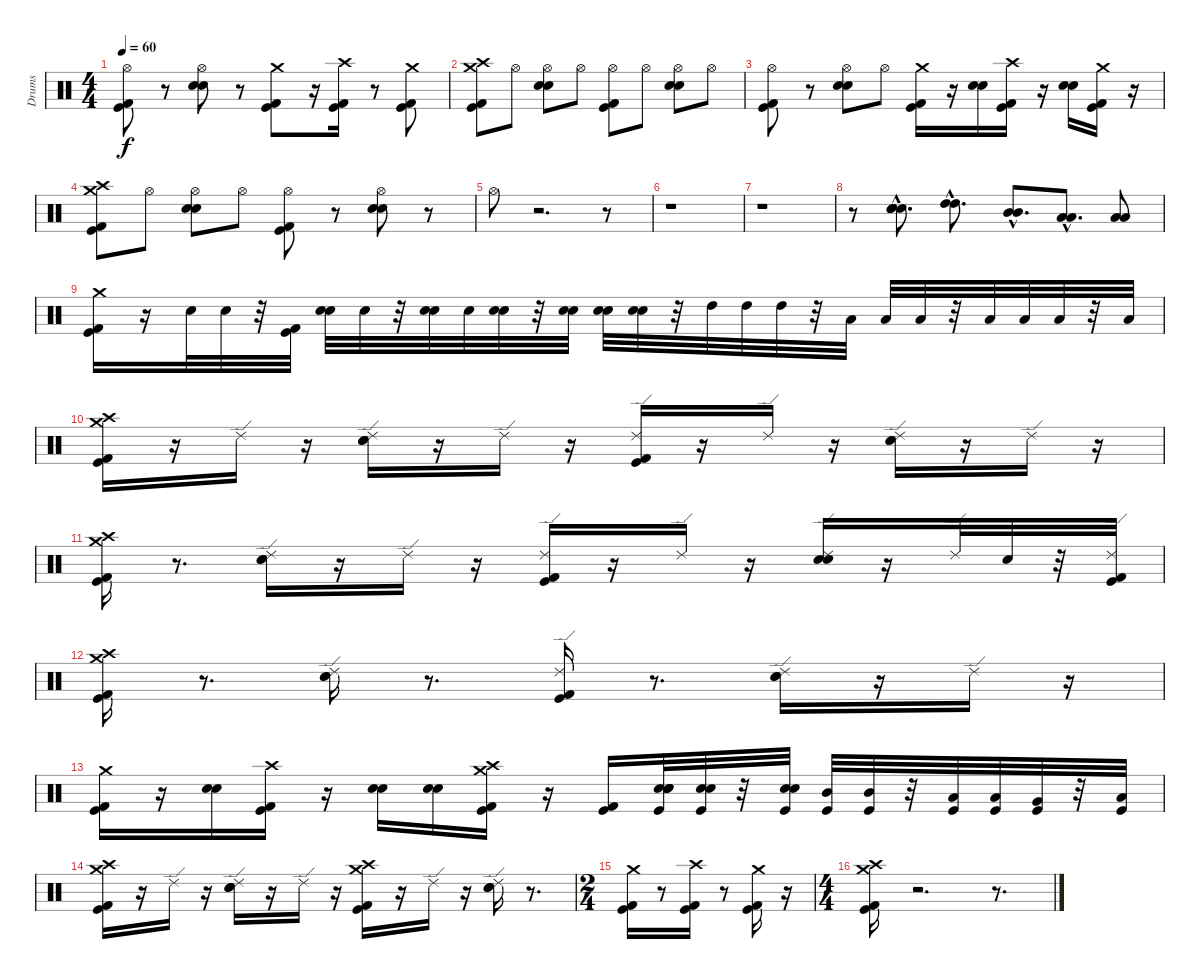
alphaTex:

\track ("Drums" "Drums") {instrument percussion}
\staff {score}
\articulation defaults
\ts (4 4)
\tempo 60
\clef neutral
\ks c
("Hi-Hat (open)" "Kick (hit) 2" "Kick (hit)").8{dy f} r.8 ("Hi-Hat (open)" "Electric Snare (hit)" "Snare (hit) 2").8 r.8 ("Crash medium (hit)" "Kick (hit) 2" "Kick (hit)").8 r.16 ("Kick (hit)" "Kick (hit) 2" "Crash high (hit)").16 r.8 ("Crash medium (hit)" "Kick (hit) 2" "Kick (hit)").8 |
("Crash high (hit)" "Crash medium (hit)" "Kick (hit) 2" "Kick (hit)").8 "Hi-Hat (open)".8 ("Electric Snare (hit)" "Snare (hit) 2" "Hi-Hat (open)").8 "Hi-Hat (open)".8 ("Kick (hit) 2" "Kick (hit)" "Hi-Hat (open)").8 "Hi-Hat (open)".8 ("Electric Snare (hit)" "Snare (hit) 2" "Hi-Hat (open)").8 "Hi-Hat (open)".8 |
("Hi-Hat (open)" "Kick (hit) 2" "Kick (hit)").8 r.8 ("Hi-Hat (open)" "Electric Snare (hit)" "Snare (hit) 2").8 "Hi-Hat (open)".8 ("Kick (hit) 2" "Crash medium (hit)" "Kick (hit)").16 r.16 ("Electric Snare (hit)" "Snare (hit) 2").16 ("Crash high (hit)" "Kick (hit) 2" "Kick (hit)").16 r.16 ("Electric Snare (hit)" "Snare (hit) 2").16 ("Kick (hit) 2" "Kick (hit)" "Crash medium (hit)").16 r.16 |
("Crash high (hit)" "Crash medium (hit)" "Kick (hit)" "Kick (hit) 2").8 "Hi-Hat (open)".8 ("Electric Snare (hit)" "Snare (hit) 2" "Hi-Hat (open)").8 "Hi-Hat (open)".8 ("Hi-Hat (open)" "Kick (hit)" "Kick (hit) 2").8 r.8 ("Electric Snare (hit)" "Snare (hit) 2" "Hi-Hat (open)").8 r.8 |
"Hi-Hat (open)".8 r.2{d} r.8 |
r.1 |
r.1 |
r.8 ("Electric Snare (hit)"{hac} "Snare (hit) 2"{hac} "Electric Snare (hit)" "Snare (hit) 2").8{d} ("High Tom (hit)"{hac} "High Tom (hit)").8{d} ("Mid Tom (hit)"{hac} "Mid Tom (hit)").8{d} ("Low Tom (hit)"{hac} "Low Tom (hit)").8{d} ("Low Floor Tom (hit)" "Low Floor Tom (hit)").8 |
("Crash medium (hit)" "Kick (hit) 2" "Kick (hit)").16 r.16 "Snare (hit)".32 "Snare (hit)".32 r.32 ("Kick (hit) 2" "Kick (hit)").32 ("Electric Snare (hit)" "Snare (hit) 2").32 "Snare (hit)".32 r.32 ("Electric Snare (hit)" "Snare (hit) 2").32 "Snare (hit)".32 ("Electric Snare (hit)" "Snare (hit) 2").32 r.32 ("Electric Snare (hit)" "Snare (hit) 2").32 ("Electric Snare (hit)" "Snare (hit) 2").32 ("Electric Snare (hit)" "Snare (hit) 2").32 r.32 "High Tom (hit)".32 "High Tom (hit)".32 "High Tom (hit)".32 r.32 "Low Tom (hit)".32 "Low Tom (hit)".32 "Low Tom (hit)".32 r.32 "Low Floor Tom (hit)".32 "Low Floor Tom (hit)".32 "Low Floor Tom (hit)".32 r.32 "Low Floor Tom (hit)".32 |
("Crash high (hit)" "Crash medium (hit)" "Kick (hit) 2" "Kick (hit)").16 r.16 "Ride (edge) 2".16 r.16 ("Ride (edge) 2" "Electric Snare (hit)" "Snare (hit) 2").16 r.16 "Ride (edge) 2".16 r.16 ("Ride (edge) 2" "Kick (hit) 2" "Kick (hit)").16 r.16 "Ride (edge) 2".16 r.16 ("Ride (edge) 2" "Electric Snare (hit)" "Snare (hit) 2").16 r.16 "Ride (edge) 2".16 r.16 |
("Crash high (hit)" "Crash medium (hit)" "Kick (hit) 2" "Kick (hit)").16 r.8{d} ("Ride (edge) 2" "Electric Snare (hit)" "Snare (hit) 2").16 r.16 "Ride (edge) 2".16 r.16 ("Ride (edge) 2" "Kick (hit) 2" "Kick (hit)").16 r.16 "Ride (edge) 2".16 r.16 ("Ride (edge) 2" "Electric Snare (hit)" "Snare (hit) 2").16 r.16 "Ride (edge) 2".32 "Snare (hit)".32 r.32 ("Kick (hit) 2" "Kick (hit)" "Ride (edge) 2").32 |
("Crash high (hit)" "Crash medium (hit)" "Kick (hit) 2" "Kick (hit)").16 r.8{d} ("Ride (edge) 2" "Electric Snare (hit)" "Snare (hit) 2").16 r.8{d} ("Kick (hit) 2" "Kick (hit)" "Ride (edge) 2").16 r.8{d} ("Electric Snare (hit)" "Snare (hit) 2" "Ride (edge) 2").16 r.16 "Ride (edge) 2".16 r.16 |
("Crash medium (hit)" "Kick (hit) 2" "Kick (hit)").16 r.16 ("Electric Snare (hit)" "Snare (hit) 2").16 ("Crash high (hit)" "Kick (hit) 2" "Kick (hit)").16 r.16 ("Electric Snare (hit)" "Snare (hit) 2").16 ("Electric Snare (hit)" "Snare (hit) 2").16 ("Crash high (hit)" "Crash medium (hit)" "Kick (hit) 2" "Kick (hit)").16 r.16 ("Kick (hit) 2" "Kick (hit)").16 ("Kick (hit)" "Electric Snare (hit)" "Snare (hit) 2" "Electric Snare (hit)" "Snare (hit) 2").32 ("Kick (hit)" "Electric Snare (hit)" "Snare (hit) 2").32 r.32 ("Kick (hit)" "Electric Snare (hit)" "Snare (hit) 2").32 ("Kick (hit)" "Mid Tom (hit)").32 ("Kick (hit)" "Mid Tom (hit)").32 r.32 ("Kick (hit)" "Low Tom (hit)").32 ("Kick (hit)" "Low Tom (hit)").32 ("Kick (hit)" "Very Low Tom (hit)").32 r.32 ("Kick (hit)" "Low Floor Tom (hit)").32 |
("Crash high (hit)" "Crash medium (hit)" "Kick (hit) 2" "Kick (hit)").16 r.16 "Ride (edge) 2".16 r.16 ("Ride (edge) 2" "Electric Snare (hit)" "Snare (hit) 2").16 r.16 "Ride (edge) 2".16 r.16 ("Crash high (hit)" "Crash medium (hit)" "Kick (hit) 2" "Kick (hit)").16 r.16 "Ride (edge) 2".16 r.16 ("Ride (edge) 2" "Electric Snare (hit)" "Snare (hit) 2").16 r.8{d} |
\ts (2 4)
("Crash medium (hit)" "Kick (hit)" "Kick (hit) 2").16 r.8 ("Crash high (hit)" "Kick (hit)" "Kick (hit) 2").16 r.8 ("Crash medium (hit)" "Kick (hit)" "Kick (hit) 2").16 r.16 |
\ts (4 4)
("Kick (hit) 2" "Kick (hit)" "Crash high (hit)" "Crash medium (hit)").16 r.2{d} r.8{d}
